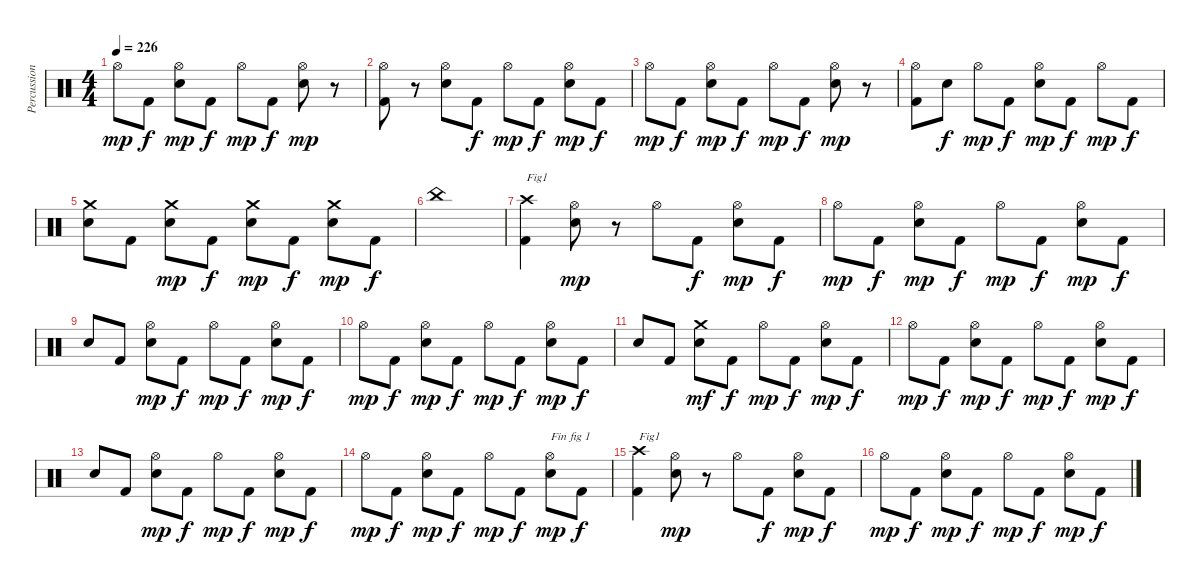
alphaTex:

\track ("Percussions" "Percussion") {instrument percussion}
\staff {score}
\articulation defaults
\ts (4 4)
\tempo 226
\clef neutral
\ks c "Hi-Hat (open)".8{dy mp} "Kick (hit) 2".8{dy f}
("Electric Snare (hit)" "Hi-Hat (open)").8{dy mp} "Kick (hit) 2".8{dy f} "Hi-Hat (open)".8{dy mp} "Kick (hit) 2".8{dy f} ("Electric Snare (hit)" "Hi-Hat (open)").8{dy mp} r.8 |
("Kick (hit) 2" "Hi-Hat (open)").8 r.8 ("Electric Snare (hit)" "Hi-Hat (open)").8 "Kick (hit) 2".8{dy f} "Hi-Hat (open)".8{dy mp} "Kick (hit) 2".8{dy f} ("Electric Snare (hit)" "Hi-Hat (open)").8{dy mp} "Kick (hit) 2".8{dy f} |
"Hi-Hat (open)".8{dy mp} "Kick (hit) 2".8{dy f} ("Electric Snare (hit)" "Hi-Hat (open)").8{dy mp} "Kick (hit) 2".8{dy f} "Hi-Hat (open)".8{dy mp} "Kick (hit) 2".8{dy f} ("Electric Snare (hit)" "Hi-Hat (open)").8{dy mp} r.8 |
("Kick (hit) 2" "Hi-Hat (open)").8 "Electric Snare (hit)".8{dy f} "Hi-Hat (open)".8{dy mp} "Kick (hit) 2".8{dy f} ("Electric Snare (hit)" "Hi-Hat (open)").8{dy mp} "Kick (hit) 2".8{dy f} "Hi-Hat (open)".8{dy mp} "Kick (hit) 2".8{dy f} |
("Electric Snare (hit)" "Crash medium (hit)").8 "Kick (hit) 2".8 ("Electric Snare (hit)" "Crash medium (hit)").8{dy mp} "Kick (hit) 2".8{dy f} ("Electric Snare (hit)" "Crash medium (hit)").8{dy mp} "Kick (hit) 2".8{dy f} ("Electric Snare (hit)" "Crash medium (hit)").8{dy mp} "Kick (hit) 2".8{dy f} |
"China (hit)".1 |
("Kick (hit) 2" "Crash high (hit)").4{txt "Fig1 "} ("Electric Snare (hit)" "Hi-Hat (open)").8{dy mp} r.8 "Hi-Hat (open)".8 "Kick (hit) 2".8{dy f} ("Electric Snare (hit)" "Hi-Hat (open)").8{dy mp} "Kick (hit) 2".8{dy f} |
"Hi-Hat (open)".8{dy mp} "Kick (hit) 2".8{dy f} ("Electric Snare (hit)" "Hi-Hat (open)").8{dy mp} "Kick (hit) 2".8{dy f} "Hi-Hat (open)".8{dy mp} "Kick (hit) 2".8{dy f} ("Electric Snare (hit)" "Hi-Hat (open)").8{dy mp} "Kick (hit) 2".8{dy f} |
"Electric Snare (hit)".8 "Kick (hit) 2".8 ("Electric Snare (hit)" "Hi-Hat (open)").8{dy mp} "Kick (hit) 2".8{dy f} "Hi-Hat (open)".8{dy mp} "Kick (hit) 2".8{dy f} ("Electric Snare (hit)" "Hi-Hat (open)").8{dy mp} "Kick (hit) 2".8{dy f} |
"Hi-Hat (open)".8{dy mp} "Kick (hit) 2".8{dy f} ("Electric Snare (hit)" "Hi-Hat (open)").8{dy mp} "Kick (hit) 2".8{dy f} "Hi-Hat (open)".8{dy mp} "Kick (hit) 2".8{dy f} ("Electric Snare (hit)" "Hi-Hat (open)").8{dy mp} "Kick (hit) 2".8{dy f} |
"Electric Snare (hit)".8 "Kick (hit) 2".8 ("Electric Snare (hit)" "Crash medium (hit)").8{dy mf} "Kick (hit) 2".8{dy f} "Hi-Hat (open)".8{dy mp} "Kick (hit) 2".8{dy f} ("Electric Snare (hit)" "Hi-Hat (open)").8{dy mp} "Kick (hit) 2".8{dy f} |
"Hi-Hat (open)".8{dy mp} "Kick (hit) 2".8{dy f} ("Electric Snare (hit)" "Hi-Hat (open)").8{dy mp} "Kick (hit) 2".8{dy f} "Hi-Hat (open)".8{dy mp} "Kick (hit) 2".8{dy f} ("Electric Snare (hit)" "Hi-Hat (open)").8{dy mp} "Kick (hit) 2".8{dy f} |
"Electric Snare (hit)".8 "Kick (hit) 2".8 ("Electric Snare (hit)" "Hi-Hat (open)").8{dy mp} "Kick (hit) 2".8{dy f} "Hi-Hat (open)".8{dy mp} "Kick (hit) 2".8{dy f} ("Electric Snare (hit)" "Hi-Hat (open)").8{dy mp} "Kick (hit) 2".8{dy f} |
"Hi-Hat (open)".8{dy mp} "Kick (hit) 2".8{dy f} ("Electric Snare (hit)" "Hi-Hat (open)").8{dy mp} "Kick (hit) 2".8{dy f} "Hi-Hat (open)".8{dy mp} "Kick (hit) 2".8{dy f} ("Electric Snare (hit)" "Hi-Hat (open)").8{txt "Fin fig 1" dy mp} "Kick (hit) 2".8{dy f} |
("Kick (hit) 2" "Crash high (hit)").4{txt "Fig1 "} ("Electric Snare (hit)" "Hi-Hat (open)").8{dy mp} r.8 "Hi-Hat (open)".8 "Kick (hit) 2".8{dy f} ("Electric Snare (hit)" "Hi-Hat (open)").8{dy mp} "Kick (hit) 2".8{dy f} |
"Hi-Hat (open)".8{dy mp} "Kick (hit) 2".8{dy f} ("Electric Snare (hit)" "Hi-Hat (open)").8{dy mp} "Kick (hit) 2".8{dy f} "Hi-Hat (open)".8{dy mp} "Kick (hit) 2".8{dy f} ("Electric Snare (hit)" "Hi-Hat (open)").8{dy mp} "Kick (hit) 2".8{dy f}
